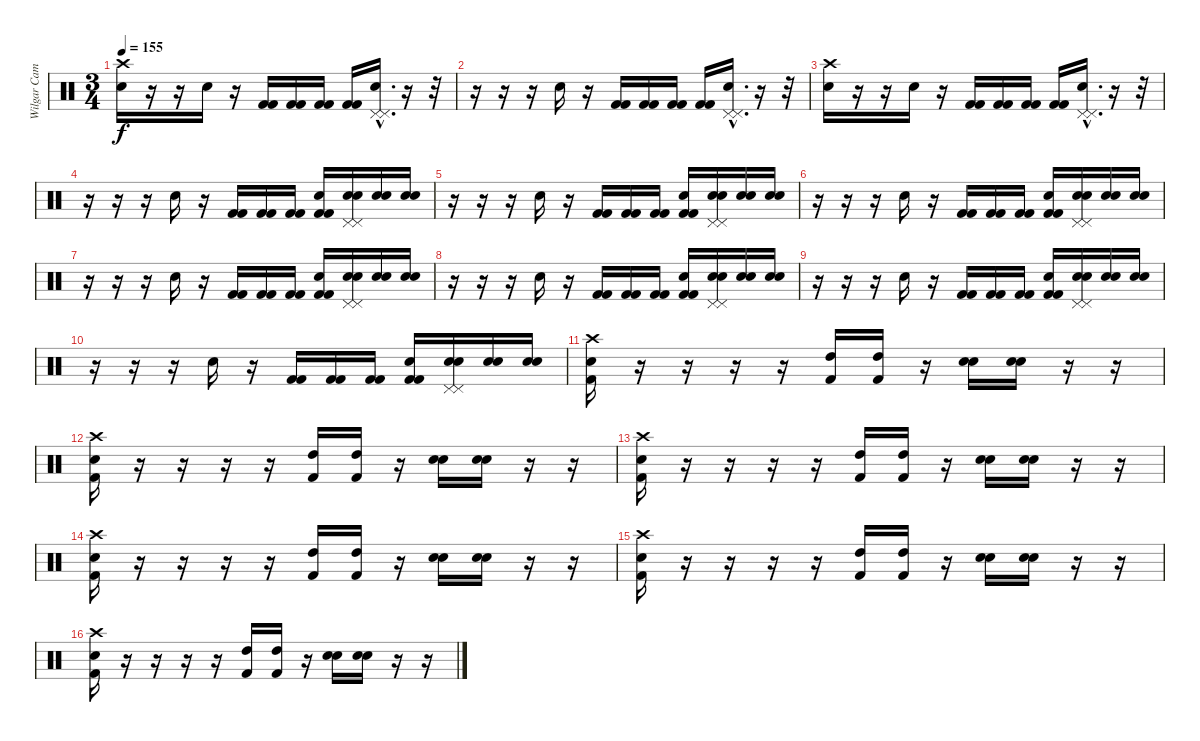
\track ("Wilgar Campbell" "Wilgar Cam") {instrument percussion}
\staff {score}
\articulation defaults
\ts (3 4)
\tempo 155
\clef neutral
\ks c
("Electric Snare (hit)" "Crash high (hit)").16{dy f} r.16 r.16 "Electric Snare (hit)".16 r.16 ("Kick (hit) 2" "Kick (hit) 2").16 ("Kick (hit) 2" "Kick (hit) 2").16 ("Kick (hit) 2" "Kick (hit) 2").16 ("Kick (hit) 2" "Kick (hit) 2").16 ("Pedal Hi-Hat (hit)"{hac} "Electric Snare (hit)"{hac} "Pedal Hi-Hat (hit)"{hac}).16{d} r.16 r.32 |
r.16 r.16 r.16 "Electric Snare (hit)".16 r.16 ("Kick (hit) 2" "Kick (hit) 2").16 ("Kick (hit) 2" "Kick (hit) 2").16 ("Kick (hit) 2" "Kick (hit) 2").16 ("Kick (hit) 2" "Kick (hit) 2").16 ("Pedal Hi-Hat (hit)"{hac} "Electric Snare (hit)"{hac} "Pedal Hi-Hat (hit)"{hac}).16{d} r.16 r.32 |
("Electric Snare (hit)" "Crash high (hit)").16 r.16 r.16 "Electric Snare (hit)".16 r.16 ("Kick (hit) 2" "Kick (hit) 2").16 ("Kick (hit) 2" "Kick (hit) 2").16 ("Kick (hit) 2" "Kick (hit) 2").16 ("Kick (hit) 2" "Kick (hit) 2").16 ("Pedal Hi-Hat (hit)"{hac} "Electric Snare (hit)"{hac} "Pedal Hi-Hat (hit)"{hac}).16{d} r.16 r.32 |
r.16 r.16 r.16 "Electric Snare (hit)".16 r.16 ("Kick (hit) 2" "Kick (hit) 2").16 ("Kick (hit) 2" "Kick (hit) 2").16 ("Kick (hit) 2" "Kick (hit) 2").16 ("Kick (hit) 2" "Kick (hit) 2" "Electric Snare (hit)").16 ("Pedal Hi-Hat (hit)" "Electric Snare (hit)" "Pedal Hi-Hat (hit)" "Electric Snare (hit)").16 ("Electric Snare (hit)" "Electric Snare (hit)").16 ("Electric Snare (hit)" "Electric Snare (hit)").16 |
r.16 r.16 r.16 "Electric Snare (hit)".16 r.16 ("Kick (hit) 2" "Kick (hit) 2").16 ("Kick (hit) 2" "Kick (hit) 2").16 ("Kick (hit) 2" "Kick (hit) 2").16 ("Kick (hit) 2" "Kick (hit) 2" "Electric Snare (hit)").16 ("Pedal Hi-Hat (hit)" "Electric Snare (hit)" "Pedal Hi-Hat (hit)" "Electric Snare (hit)").16 ("Electric Snare (hit)" "Electric Snare (hit)").16 ("Electric Snare (hit)" "Electric Snare (hit)").16 |
r.16 r.16 r.16 "Electric Snare (hit)".16 r.16 ("Kick (hit) 2" "Kick (hit) 2").16 ("Kick (hit) 2" "Kick (hit) 2").16 ("Kick (hit) 2" "Kick (hit) 2").16 ("Kick (hit) 2" "Kick (hit) 2" "Electric Snare (hit)").16 ("Pedal Hi-Hat (hit)" "Electric Snare (hit)" "Pedal Hi-Hat (hit)" "Electric Snare (hit)").16 ("Electric Snare (hit)" "Electric Snare (hit)").16 ("Electric Snare (hit)" "Electric Snare (hit)").16 |
r.16 r.16 r.16 "Electric Snare (hit)".16 r.16 ("Kick (hit) 2" "Kick (hit) 2").16 ("Kick (hit) 2" "Kick (hit) 2").16 ("Kick (hit) 2" "Kick (hit) 2").16 ("Kick (hit) 2" "Kick (hit) 2" "Electric Snare (hit)").16 ("Pedal Hi-Hat (hit)" "Electric Snare (hit)" "Pedal Hi-Hat (hit)" "Electric Snare (hit)").16 ("Electric Snare (hit)" "Electric Snare (hit)").16 ("Electric Snare (hit)" "Electric Snare (hit)").16 |
r.16 r.16 r.16 "Electric Snare (hit)".16 r.16 ("Kick (hit) 2" "Kick (hit) 2").16 ("Kick (hit) 2" "Kick (hit) 2").16 ("Kick (hit) 2" "Kick (hit) 2").16 ("Kick (hit) 2" "Kick (hit) 2" "Electric Snare (hit)").16 ("Pedal Hi-Hat (hit)" "Electric Snare (hit)" "Pedal Hi-Hat (hit)" "Electric Snare (hit)").16 ("Electric Snare (hit)" "Electric Snare (hit)").16 ("Electric Snare (hit)" "Electric Snare (hit)").16 |
r.16 r.16 r.16 "Electric Snare (hit)".16 r.16 ("Kick (hit) 2" "Kick (hit) 2").16 ("Kick (hit) 2" "Kick (hit) 2").16 ("Kick (hit) 2" "Kick (hit) 2").16 ("Kick (hit) 2" "Kick (hit) 2" "Electric Snare (hit)").16 ("Pedal Hi-Hat (hit)" "Electric Snare (hit)" "Pedal Hi-Hat (hit)" "Electric Snare (hit)").16 ("Electric Snare (hit)" "Electric Snare (hit)").16 ("Electric Snare (hit)" "Electric Snare (hit)").16 |
r.16 r.16 r.16 "Electric Snare (hit)".16 r.16 ("Kick (hit) 2" "Kick (hit) 2").16 ("Kick (hit) 2" "Kick (hit) 2").16 ("Kick (hit) 2" "Kick (hit) 2").16 ("Kick (hit) 2" "Kick (hit) 2" "Electric Snare (hit)").16 ("Pedal Hi-Hat (hit)" "Electric Snare (hit)" "Pedal Hi-Hat (hit)" "Electric Snare (hit)").16 ("Electric Snare (hit)" "Electric Snare (hit)").16 ("Electric Snare (hit)" "Electric Snare (hit)").16 |
("Kick (hit) 2" "Snare (hit) 2" "Crash high (hit)").16 r.16 r.16 r.16 r.16 ("High Tom (hit)" "Kick (hit) 2").16 ("High Tom (hit)" "Kick (hit) 2").16 r.16 ("Electric Snare (hit)" "Electric Snare (hit)").16 ("Electric Snare (hit)" "Electric Snare (hit)").16 r.16 r.16 |
("Kick (hit) 2" "Snare (hit) 2" "Crash high (hit)").16 r.16 r.16 r.16 r.16 ("High Tom (hit)" "Kick (hit) 2").16 ("High Tom (hit)" "Kick (hit) 2").16 r.16 ("Electric Snare (hit)" "Electric Snare (hit)").16 ("Electric Snare (hit)" "Electric Snare (hit)").16 r.16 r.16 |
("Kick (hit) 2" "Snare (hit) 2" "Crash high (hit)").16 r.16 r.16 r.16 r.16 ("High Tom (hit)" "Kick (hit) 2").16 ("High Tom (hit)" "Kick (hit) 2").16 r.16 ("Electric Snare (hit)" "Electric Snare (hit)").16 ("Electric Snare (hit)" "Electric Snare (hit)").16 r.16 r.16 |
("Kick (hit) 2" "Snare (hit) 2" "Crash high (hit)").16 r.16 r.16 r.16 r.16 ("High Tom (hit)" "Kick (hit) 2").16 ("High Tom (hit)" "Kick (hit) 2").16 r.16 ("Electric Snare (hit)" "Electric Snare (hit)").16 ("Electric Snare (hit)" "Electric Snare (hit)").16 r.16 r.16 |
("Kick (hit) 2" "Snare (hit) 2" "Crash high (hit)").16 r.16 r.16 r.16 r.16 ("High Tom (hit)" "Kick (hit) 2").16 ("High Tom (hit)" "Kick (hit) 2").16 r.16 ("Electric Snare (hit)" "Electric Snare (hit)").16 ("Electric Snare (hit)" "Electric Snare (hit)").16 r.16 r.16 |
("Kick (hit) 2" "Snare (hit) 2" "Crash high (hit)").16 r.16 r.16 r.16 r.16 ("High Tom (hit)" "Kick (hit) 2").16 ("High Tom (hit)" "Kick (hit) 2").16 r.16 ("Electric Snare (hit)" "Electric Snare (hit)").16 ("Electric Snare (hit)" "Electric Snare (hit)").16 r.16 r.16
